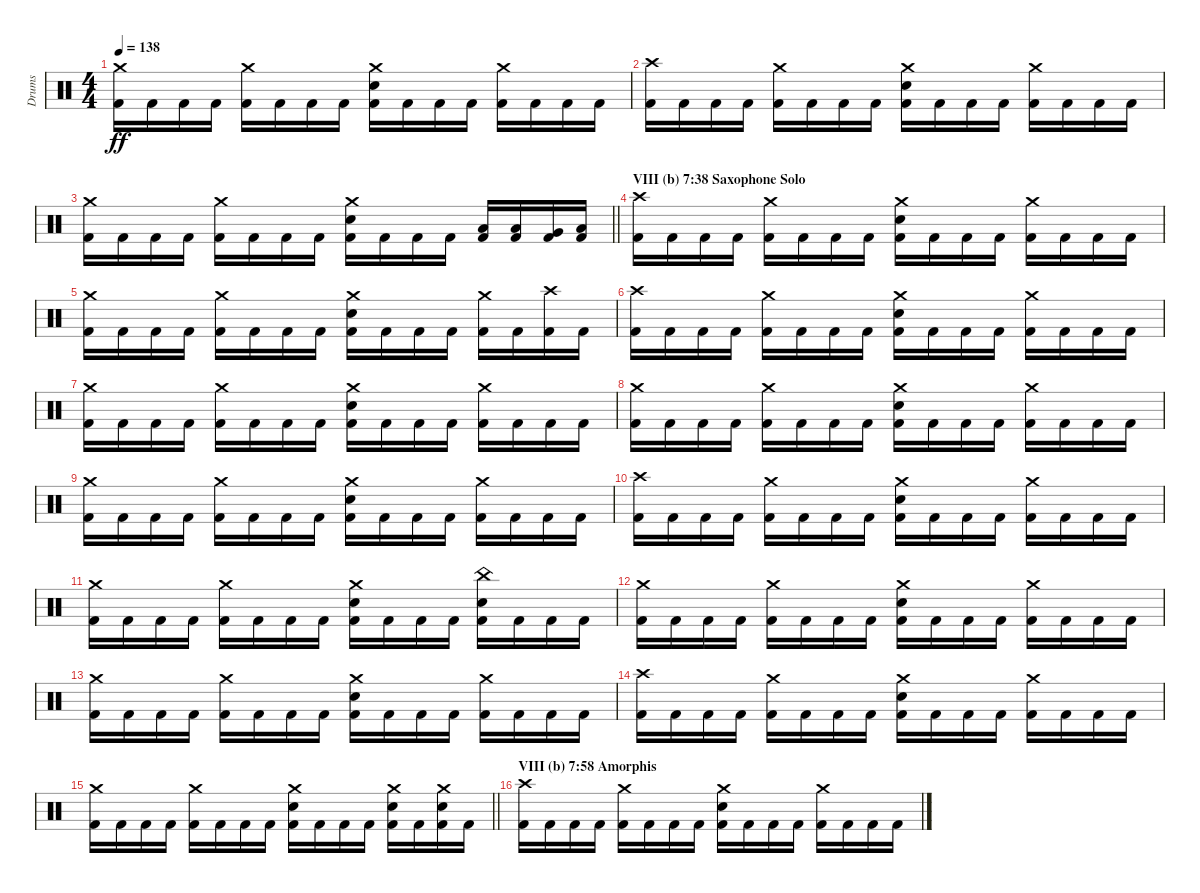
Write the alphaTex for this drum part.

\track ("Drums" "Drums") {instrument percussion}
\staff {score}
\articulation defaults
\ts (4 4)
\tempo 138
\clef neutral
\ks c
("Crash medium (hit)" "Kick (hit) 2").16{dy ff} "Kick (hit) 2".16 "Kick (hit) 2".16 "Kick (hit) 2".16 ("Crash medium (hit)" "Kick (hit) 2").16 "Kick (hit) 2".16 "Kick (hit) 2".16 "Kick (hit) 2".16 ("Crash medium (hit)" "Electric Snare (hit)" "Kick (hit) 2").16 "Kick (hit) 2".16 "Kick (hit) 2".16 "Kick (hit) 2".16 ("Crash medium (hit)" "Kick (hit) 2").16 "Kick (hit) 2".16 "Kick (hit) 2".16 "Kick (hit) 2".16 |
("Crash high (hit)" "Kick (hit) 2").16 "Kick (hit) 2".16 "Kick (hit) 2".16 "Kick (hit) 2".16 ("Crash medium (hit)" "Kick (hit) 2").16 "Kick (hit) 2".16 "Kick (hit) 2".16 "Kick (hit) 2".16 ("Crash medium (hit)" "Electric Snare (hit)" "Kick (hit) 2").16 "Kick (hit) 2".16 "Kick (hit) 2".16 "Kick (hit) 2".16 ("Crash medium (hit)" "Kick (hit) 2").16 "Kick (hit) 2".16 "Kick (hit) 2".16 "Kick (hit) 2".16 |
\barLineRight lightlight
("Crash medium (hit)" "Kick (hit) 2").16 "Kick (hit) 2".16 "Kick (hit) 2".16 "Kick (hit) 2".16 ("Crash medium (hit)" "Kick (hit) 2").16 "Kick (hit) 2".16 "Kick (hit) 2".16 "Kick (hit) 2".16 ("Crash medium (hit)" "Electric Snare (hit)" "Kick (hit) 2").16 "Kick (hit) 2".16 "Kick (hit) 2".16 "Kick (hit) 2".16 ("Low Tom (hit)" "Kick (hit) 2").16 ("Low Tom (hit)" "Kick (hit) 2").16 ("Very Low Tom (hit)" "Kick (hit) 2").16 ("Low Floor Tom (hit)" "Kick (hit) 2").16 |
\section ("" "VIII (b) 7:38 Saxophone Solo")
("Crash high (hit)" "Kick (hit) 2").16 "Kick (hit) 2".16 "Kick (hit) 2".16 "Kick (hit) 2".16 ("Crash medium (hit)" "Kick (hit) 2").16 "Kick (hit) 2".16 "Kick (hit) 2".16 "Kick (hit) 2".16 ("Crash medium (hit)" "Electric Snare (hit)" "Kick (hit) 2").16 "Kick (hit) 2".16 "Kick (hit) 2".16 "Kick (hit) 2".16 ("Crash medium (hit)" "Kick (hit) 2").16 "Kick (hit) 2".16 "Kick (hit) 2".16 "Kick (hit) 2".16 |
("Crash medium (hit)" "Kick (hit) 2").16 "Kick (hit) 2".16 "Kick (hit) 2".16 "Kick (hit) 2".16 ("Crash medium (hit)" "Kick (hit) 2").16 "Kick (hit) 2".16 "Kick (hit) 2".16 "Kick (hit) 2".16 ("Crash medium (hit)" "Electric Snare (hit)" "Kick (hit) 2").16 "Kick (hit) 2".16 "Kick (hit) 2".16 "Kick (hit) 2".16 ("Crash medium (hit)" "Kick (hit) 2").16 "Kick (hit) 2".16 ("Crash high (hit)" "Kick (hit) 2").16 "Kick (hit) 2".16 |
("Crash high (hit)" "Kick (hit) 2").16 "Kick (hit) 2".16 "Kick (hit) 2".16 "Kick (hit) 2".16 ("Crash medium (hit)" "Kick (hit) 2").16 "Kick (hit) 2".16 "Kick (hit) 2".16 "Kick (hit) 2".16 ("Crash medium (hit)" "Electric Snare (hit)" "Kick (hit) 2").16 "Kick (hit) 2".16 "Kick (hit) 2".16 "Kick (hit) 2".16 ("Crash medium (hit)" "Kick (hit) 2").16 "Kick (hit) 2".16 "Kick (hit) 2".16 "Kick (hit) 2".16 |
("Crash medium (hit)" "Kick (hit) 2").16 "Kick (hit) 2".16 "Kick (hit) 2".16 "Kick (hit) 2".16 ("Crash medium (hit)" "Kick (hit) 2").16 "Kick (hit) 2".16 "Kick (hit) 2".16 "Kick (hit) 2".16 ("Crash medium (hit)" "Electric Snare (hit)" "Kick (hit) 2").16 "Kick (hit) 2".16 "Kick (hit) 2".16 "Kick (hit) 2".16 ("Crash medium (hit)" "Kick (hit) 2").16 "Kick (hit) 2".16 "Kick (hit) 2".16 "Kick (hit) 2".16 |
("Crash medium (hit)" "Kick (hit) 2").16 "Kick (hit) 2".16 "Kick (hit) 2".16 "Kick (hit) 2".16 ("Crash medium (hit)" "Kick (hit) 2").16 "Kick (hit) 2".16 "Kick (hit) 2".16 "Kick (hit) 2".16 ("Crash medium (hit)" "Electric Snare (hit)" "Kick (hit) 2").16 "Kick (hit) 2".16 "Kick (hit) 2".16 "Kick (hit) 2".16 ("Crash medium (hit)" "Kick (hit) 2").16 "Kick (hit) 2".16 "Kick (hit) 2".16 "Kick (hit) 2".16 |
("Crash medium (hit)" "Kick (hit) 2").16 "Kick (hit) 2".16 "Kick (hit) 2".16 "Kick (hit) 2".16 ("Crash medium (hit)" "Kick (hit) 2").16 "Kick (hit) 2".16 "Kick (hit) 2".16 "Kick (hit) 2".16 ("Crash medium (hit)" "Electric Snare (hit)" "Kick (hit) 2").16 "Kick (hit) 2".16 "Kick (hit) 2".16 "Kick (hit) 2".16 ("Crash medium (hit)" "Kick (hit) 2").16 "Kick (hit) 2".16 "Kick (hit) 2".16 "Kick (hit) 2".16 |
("Crash high (hit)" "Kick (hit) 2").16 "Kick (hit) 2".16 "Kick (hit) 2".16 "Kick (hit) 2".16 ("Crash medium (hit)" "Kick (hit) 2").16 "Kick (hit) 2".16 "Kick (hit) 2".16 "Kick (hit) 2".16 ("Crash medium (hit)" "Electric Snare (hit)" "Kick (hit) 2").16 "Kick (hit) 2".16 "Kick (hit) 2".16 "Kick (hit) 2".16 ("Crash medium (hit)" "Kick (hit) 2").16 "Kick (hit) 2".16 "Kick (hit) 2".16 "Kick (hit) 2".16 |
("Crash medium (hit)" "Kick (hit) 2").16 "Kick (hit) 2".16 "Kick (hit) 2".16 "Kick (hit) 2".16 ("Crash medium (hit)" "Kick (hit) 2").16 "Kick (hit) 2".16 "Kick (hit) 2".16 "Kick (hit) 2".16 ("Crash medium (hit)" "Electric Snare (hit)" "Kick (hit) 2").16 "Kick (hit) 2".16 "Kick (hit) 2".16 "Kick (hit) 2".16 ("China (hit)" "Electric Snare (hit)" "Kick (hit) 2").16 "Kick (hit) 2".16 "Kick (hit) 2".16 "Kick (hit) 2".16 |
("Crash medium (hit)" "Kick (hit) 2").16 "Kick (hit) 2".16 "Kick (hit) 2".16 "Kick (hit) 2".16 ("Crash medium (hit)" "Kick (hit) 2").16 "Kick (hit) 2".16 "Kick (hit) 2".16 "Kick (hit) 2".16 ("Crash medium (hit)" "Electric Snare (hit)" "Kick (hit) 2").16 "Kick (hit) 2".16 "Kick (hit) 2".16 "Kick (hit) 2".16 ("Crash medium (hit)" "Kick (hit) 2").16 "Kick (hit) 2".16 "Kick (hit) 2".16 "Kick (hit) 2".16 |
("Crash medium (hit)" "Kick (hit) 2").16 "Kick (hit) 2".16 "Kick (hit) 2".16 "Kick (hit) 2".16 ("Crash medium (hit)" "Kick (hit) 2").16 "Kick (hit) 2".16 "Kick (hit) 2".16 "Kick (hit) 2".16 ("Crash medium (hit)" "Electric Snare (hit)" "Kick (hit) 2").16 "Kick (hit) 2".16 "Kick (hit) 2".16 "Kick (hit) 2".16 ("Crash medium (hit)" "Kick (hit) 2").16 "Kick (hit) 2".16 "Kick (hit) 2".16 "Kick (hit) 2".16 |
("Crash high (hit)" "Kick (hit) 2").16 "Kick (hit) 2".16 "Kick (hit) 2".16 "Kick (hit) 2".16 ("Crash medium (hit)" "Kick (hit) 2").16 "Kick (hit) 2".16 "Kick (hit) 2".16 "Kick (hit) 2".16 ("Crash medium (hit)" "Electric Snare (hit)" "Kick (hit) 2").16 "Kick (hit) 2".16 "Kick (hit) 2".16 "Kick (hit) 2".16 ("Crash medium (hit)" "Kick (hit) 2").16 "Kick (hit) 2".16 "Kick (hit) 2".16 "Kick (hit) 2".16 |
\barLineRight lightlight
("Crash medium (hit)" "Kick (hit) 2").16 "Kick (hit) 2".16 "Kick (hit) 2".16 "Kick (hit) 2".16 ("Crash medium (hit)" "Kick (hit) 2").16 "Kick (hit) 2".16 "Kick (hit) 2".16 "Kick (hit) 2".16 ("Crash medium (hit)" "Electric Snare (hit)" "Kick (hit) 2").16 "Kick (hit) 2".16 "Kick (hit) 2".16 "Kick (hit) 2".16 ("Crash medium (hit)" "Electric Snare (hit)" "Kick (hit) 2").16 "Kick (hit) 2".16 ("Crash medium (hit)" "Electric Snare (hit)" "Kick (hit) 2").16 "Kick (hit) 2".16 |
\section ("" "VIII (b) 7:58 Amorphis")
("Crash high (hit)" "Kick (hit) 2").16 "Kick (hit) 2".16 "Kick (hit) 2".16 "Kick (hit) 2".16 ("Crash medium (hit)" "Kick (hit) 2").16 "Kick (hit) 2".16 "Kick (hit) 2".16 "Kick (hit) 2".16 ("Crash medium (hit)" "Electric Snare (hit)" "Kick (hit) 2").16 "Kick (hit) 2".16 "Kick (hit) 2".16 "Kick (hit) 2".16 ("Crash medium (hit)" "Kick (hit) 2").16 "Kick (hit) 2".16 "Kick (hit) 2".16 "Kick (hit) 2".16
